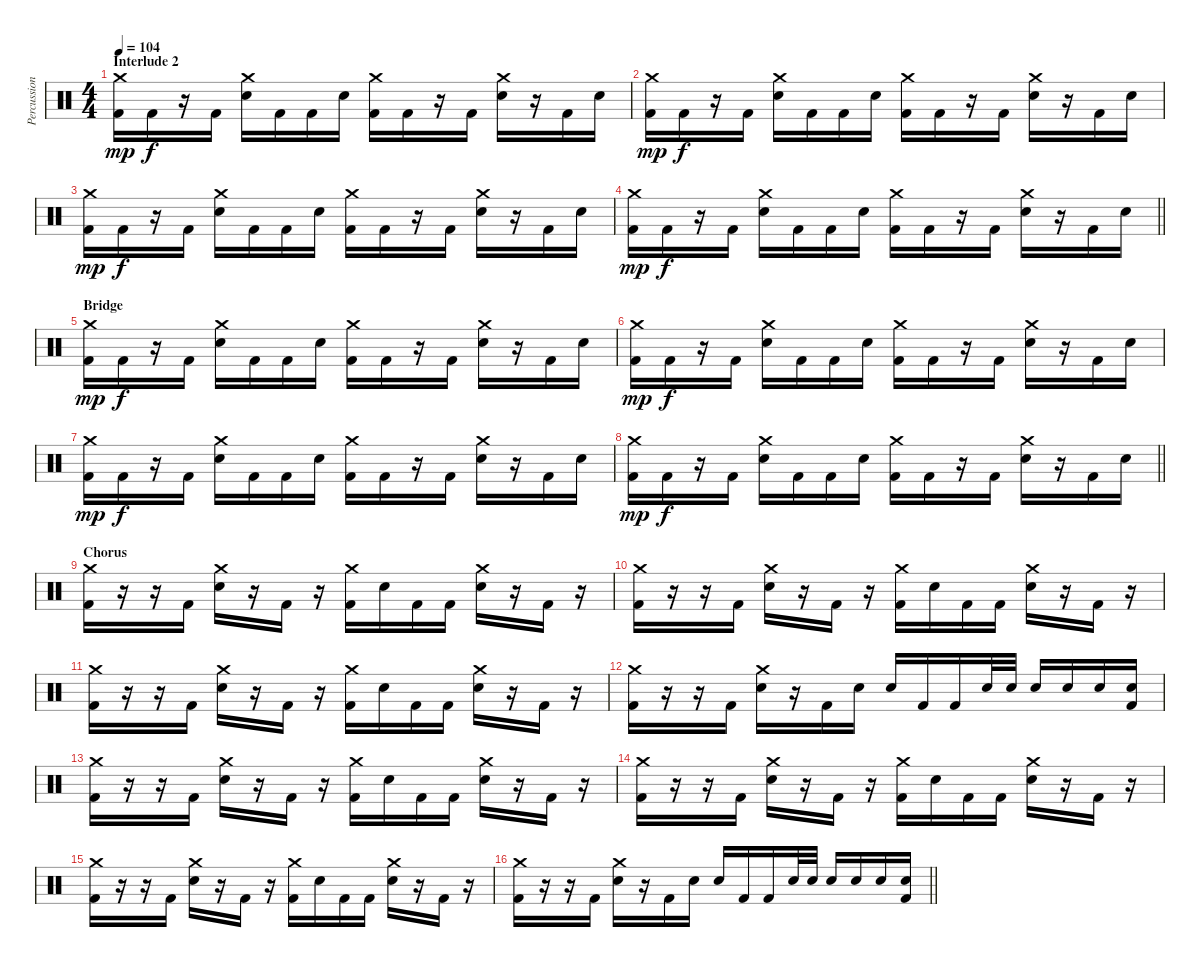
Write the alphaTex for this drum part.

\track ("Percussion" "Percussion") {instrument percussion}
\staff {score}
\articulation defaults
\ts (4 4)
\section ("" "Interlude 2")
\tempo 104
\clef neutral
\ks c
("Crash medium (hit)" "Kick (hit) 2").16{dy mp} "Kick (hit) 2".16{dy f} r.16 "Kick (hit) 2".16 ("Crash medium (hit)" "Electric Snare (hit)").16 "Kick (hit) 2".16 "Kick (hit) 2".16 "Electric Snare (hit)".16 ("Crash medium (hit)" "Kick (hit) 2").16 "Kick (hit) 2".16 r.16 "Kick (hit) 2".16 ("Crash medium (hit)" "Electric Snare (hit)").16 r.16 "Kick (hit) 2".16 "Electric Snare (hit)".16 |
("Crash medium (hit)" "Kick (hit) 2").16{dy mp} "Kick (hit) 2".16{dy f} r.16 "Kick (hit) 2".16 ("Crash medium (hit)" "Electric Snare (hit)").16 "Kick (hit) 2".16 "Kick (hit) 2".16 "Electric Snare (hit)".16 ("Crash medium (hit)" "Kick (hit) 2").16 "Kick (hit) 2".16 r.16 "Kick (hit) 2".16 ("Crash medium (hit)" "Electric Snare (hit)").16 r.16 "Kick (hit) 2".16 "Electric Snare (hit)".16 |
("Crash medium (hit)" "Kick (hit) 2").16{dy mp} "Kick (hit) 2".16{dy f} r.16 "Kick (hit) 2".16 ("Crash medium (hit)" "Electric Snare (hit)").16 "Kick (hit) 2".16 "Kick (hit) 2".16 "Electric Snare (hit)".16 ("Crash medium (hit)" "Kick (hit) 2").16 "Kick (hit) 2".16 r.16 "Kick (hit) 2".16 ("Crash medium (hit)" "Electric Snare (hit)").16 r.16 "Kick (hit) 2".16 "Electric Snare (hit)".16 |
\barLineRight lightlight
("Crash medium (hit)" "Kick (hit) 2").16{dy mp} "Kick (hit) 2".16{dy f} r.16 "Kick (hit) 2".16 ("Crash medium (hit)" "Electric Snare (hit)").16 "Kick (hit) 2".16 "Kick (hit) 2".16 "Electric Snare (hit)".16 ("Crash medium (hit)" "Kick (hit) 2").16 "Kick (hit) 2".16 r.16 "Kick (hit) 2".16 ("Crash medium (hit)" "Electric Snare (hit)").16 r.16 "Kick (hit) 2".16 "Electric Snare (hit)".16 |
\section ("" "Bridge")
("Crash medium (hit)" "Kick (hit) 2").16{dy mp} "Kick (hit) 2".16{dy f} r.16 "Kick (hit) 2".16 ("Crash medium (hit)" "Electric Snare (hit)").16 "Kick (hit) 2".16 "Kick (hit) 2".16 "Electric Snare (hit)".16 ("Crash medium (hit)" "Kick (hit) 2").16 "Kick (hit) 2".16 r.16 "Kick (hit) 2".16 ("Crash medium (hit)" "Electric Snare (hit)").16 r.16 "Kick (hit) 2".16 "Electric Snare (hit)".16 |
("Crash medium (hit)" "Kick (hit) 2").16{dy mp} "Kick (hit) 2".16{dy f} r.16 "Kick (hit) 2".16 ("Crash medium (hit)" "Electric Snare (hit)").16 "Kick (hit) 2".16 "Kick (hit) 2".16 "Electric Snare (hit)".16 ("Crash medium (hit)" "Kick (hit) 2").16 "Kick (hit) 2".16 r.16 "Kick (hit) 2".16 ("Crash medium (hit)" "Electric Snare (hit)").16 r.16 "Kick (hit) 2".16 "Electric Snare (hit)".16 |
("Crash medium (hit)" "Kick (hit) 2").16{dy mp} "Kick (hit) 2".16{dy f} r.16 "Kick (hit) 2".16 ("Crash medium (hit)" "Electric Snare (hit)").16 "Kick (hit) 2".16 "Kick (hit) 2".16 "Electric Snare (hit)".16 ("Crash medium (hit)" "Kick (hit) 2").16 "Kick (hit) 2".16 r.16 "Kick (hit) 2".16 ("Crash medium (hit)" "Electric Snare (hit)").16 r.16 "Kick (hit) 2".16 "Electric Snare (hit)".16 |
\barLineRight lightlight
("Crash medium (hit)" "Kick (hit) 2").16{dy mp} "Kick (hit) 2".16{dy f} r.16 "Kick (hit) 2".16 ("Crash medium (hit)" "Electric Snare (hit)").16 "Kick (hit) 2".16 "Kick (hit) 2".16 "Electric Snare (hit)".16 ("Crash medium (hit)" "Kick (hit) 2").16 "Kick (hit) 2".16 r.16 "Kick (hit) 2".16 ("Crash medium (hit)" "Electric Snare (hit)").16 r.16 "Kick (hit) 2".16 "Electric Snare (hit)".16 |
\section ("" "Chorus")
("Crash medium (hit)" "Kick (hit) 2").16 r.16 r.16 "Kick (hit) 2".16 ("Crash medium (hit)" "Electric Snare (hit)").16 r.16 "Kick (hit) 2".16 r.16 ("Crash medium (hit)" "Kick (hit) 2").16 "Electric Snare (hit)".16 "Kick (hit) 2".16 "Kick (hit) 2".16 ("Crash medium (hit)" "Electric Snare (hit)").16 r.16 "Kick (hit) 2".16 r.16 |
("Crash medium (hit)" "Kick (hit) 2").16 r.16 r.16 "Kick (hit) 2".16 ("Crash medium (hit)" "Electric Snare (hit)").16 r.16 "Kick (hit) 2".16 r.16 ("Crash medium (hit)" "Kick (hit) 2").16 "Electric Snare (hit)".16 "Kick (hit) 2".16 "Kick (hit) 2".16 ("Crash medium (hit)" "Electric Snare (hit)").16 r.16 "Kick (hit) 2".16 r.16 |
("Crash medium (hit)" "Kick (hit) 2").16 r.16 r.16 "Kick (hit) 2".16 ("Crash medium (hit)" "Electric Snare (hit)").16 r.16 "Kick (hit) 2".16 r.16 ("Crash medium (hit)" "Kick (hit) 2").16 "Electric Snare (hit)".16 "Kick (hit) 2".16 "Kick (hit) 2".16 ("Crash medium (hit)" "Electric Snare (hit)").16 r.16 "Kick (hit) 2".16 r.16 |
("Crash medium (hit)" "Kick (hit) 2").16 r.16 r.16 "Kick (hit) 2".16 ("Crash medium (hit)" "Electric Snare (hit)").16 r.16 "Kick (hit) 2".16 "Electric Snare (hit)".16 "Electric Snare (hit)".16 "Kick (hit) 2".16 "Kick (hit) 2".16 "Electric Snare (hit)".32 "Electric Snare (hit)".32 "Electric Snare (hit)".16 "Electric Snare (hit)".16 "Electric Snare (hit)".16 ("Electric Snare (hit)" "Kick (hit) 2").16 |
("Crash medium (hit)" "Kick (hit) 2").16 r.16 r.16 "Kick (hit) 2".16 ("Crash medium (hit)" "Electric Snare (hit)").16 r.16 "Kick (hit) 2".16 r.16 ("Crash medium (hit)" "Kick (hit) 2").16 "Electric Snare (hit)".16 "Kick (hit) 2".16 "Kick (hit) 2".16 ("Crash medium (hit)" "Electric Snare (hit)").16 r.16 "Kick (hit) 2".16 r.16 |
("Crash medium (hit)" "Kick (hit) 2").16 r.16 r.16 "Kick (hit) 2".16 ("Crash medium (hit)" "Electric Snare (hit)").16 r.16 "Kick (hit) 2".16 r.16 ("Crash medium (hit)" "Kick (hit) 2").16 "Electric Snare (hit)".16 "Kick (hit) 2".16 "Kick (hit) 2".16 ("Crash medium (hit)" "Electric Snare (hit)").16 r.16 "Kick (hit) 2".16 r.16 |
("Crash medium (hit)" "Kick (hit) 2").16 r.16 r.16 "Kick (hit) 2".16 ("Crash medium (hit)" "Electric Snare (hit)").16 r.16 "Kick (hit) 2".16 r.16 ("Crash medium (hit)" "Kick (hit) 2").16 "Electric Snare (hit)".16 "Kick (hit) 2".16 "Kick (hit) 2".16 ("Crash medium (hit)" "Electric Snare (hit)").16 r.16 "Kick (hit) 2".16 r.16 |
\barLineRight lightlight
("Crash medium (hit)" "Kick (hit) 2").16 r.16 r.16 "Kick (hit) 2".16 ("Crash medium (hit)" "Electric Snare (hit)").16 r.16 "Kick (hit) 2".16 "Electric Snare (hit)".16 "Electric Snare (hit)".16 "Kick (hit) 2".16 "Kick (hit) 2".16 "Electric Snare (hit)".32 "Electric Snare (hit)".32 "Electric Snare (hit)".16 "Electric Snare (hit)".16 "Electric Snare (hit)".16 ("Electric Snare (hit)" "Kick (hit) 2").16
